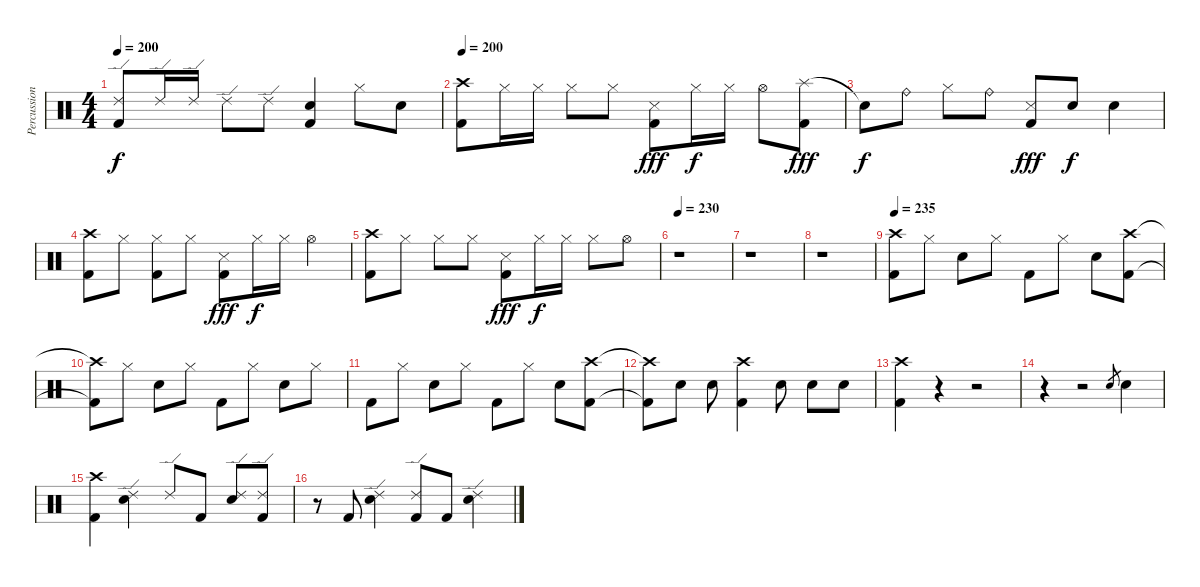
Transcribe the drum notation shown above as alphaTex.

\track ("Percussion" "Percussion") {instrument percussion}
\staff {score}
\articulation defaults
\ts (4 4)
\tempo 200
\clef neutral
\ks c
("Ride (edge) 2" "Kick (hit) 2").8{dy f} "Ride (edge) 2".16 "Ride (edge) 2".16 "Ride (edge) 2".8 "Ride (edge) 2".8 ("Kick (hit) 2" "Electric Snare (hit)").4 "Hi-Hat (closed)".8 "Electric Snare (hit)".8 |
\tempo 200
("Crash high (hit)" "Kick (hit) 2").8 "Hi-Hat (closed)".16 "Hi-Hat (closed)".16 "Hi-Hat (closed)".8 "Hi-Hat (closed)".8 ("Metronome (hit)" "Kick (hit) 2").8{dy fff} "Hi-Hat (closed)".16{dy f} "Hi-Hat (closed)".16 "Hi-Hat (open)".8 ("Splash (hit)" "Kick (hit) 2").8{dy fff} |
"Snare (hit)"{t}.8{dy f} "Ride (bell)".8 "Hi-Hat (closed)".8 "Ride (bell)".8 ("Kick (hit) 2" "Metronome (hit)").8{dy fff} "Snare (hit) 2".8{dy f} "Snare (hit) 2".4 |
("Crash high (hit)" "Kick (hit) 2").8 "Hi-Hat (closed)".8 ("Hi-Hat (closed)" "Kick (hit) 2").8 "Hi-Hat (closed)".8 ("Metronome (hit)" "Kick (hit) 2").8{dy fff} "Hi-Hat (closed)".16{dy f} "Hi-Hat (closed)".16 "Hi-Hat (open)".4 |
("Crash high (hit)" "Kick (hit) 2").8 "Hi-Hat (closed)".8 "Hi-Hat (closed)".8 "Hi-Hat (closed)".8 ("Metronome (hit)" "Kick (hit) 2").8{dy fff} "Hi-Hat (closed)".16{dy f} "Hi-Hat (closed)".16 "Hi-Hat (closed)".8 "Hi-Hat (open)".8 |
\tempo 230
r.1 |
r.1 |
r.1 |
\tempo 235
("Crash high (hit)" "Kick (hit) 2").8 "Hi-Hat (closed)".8 "Snare (hit) 2".8 "Hi-Hat (closed)".8 "Kick (hit) 2".8 "Hi-Hat (closed)".8 "Snare (hit) 2".8 ("Crash high (hit)" "Kick (hit) 2").8 |
("Crash high (hit)"{t} "Kick (hit) 2"{t}).8 "Hi-Hat (closed)".8 "Snare (hit) 2".8 "Hi-Hat (closed)".8 "Kick (hit) 2".8 "Hi-Hat (closed)".8 "Snare (hit) 2".8 "Hi-Hat (closed)".8 |
"Kick (hit) 2".8 "Hi-Hat (closed)".8 "Snare (hit) 2".8 "Hi-Hat (closed)".8 "Kick (hit) 2".8 "Hi-Hat (closed)".8 "Snare (hit) 2".8 ("Crash high (hit)" "Kick (hit) 2").8 |
("Crash high (hit)"{t} "Kick (hit) 2"{t}).8 "Snare (hit) 2".8 "Snare (hit) 2".8 ("Crash high (hit)" "Kick (hit) 2").4 "Snare (hit) 2".8 "Snare (hit) 2".8 "Snare (hit) 2".8 |
("Crash high (hit)" "Kick (hit) 2").4 r.4 r.2 |
r.4 r.2 "Snare (hit) 2".8{gr} "Snare (hit) 2".4 |
("Crash high (hit)" "Kick (hit) 2").4 ("Ride (edge) 2" "Snare (hit) 2").4 "Ride (edge) 2".8 "Kick (hit) 2".8 ("Ride (edge) 2" "Snare (hit) 2").8 ("Ride (edge) 2" "Kick (hit) 2").8 |
r.8 "Kick (hit) 2".8 ("Ride (edge) 2" "Snare (hit) 2").4 ("Ride (edge) 2" "Kick (hit) 2").8 "Kick (hit) 2".8 ("Ride (edge) 2" "Snare (hit) 2").4
